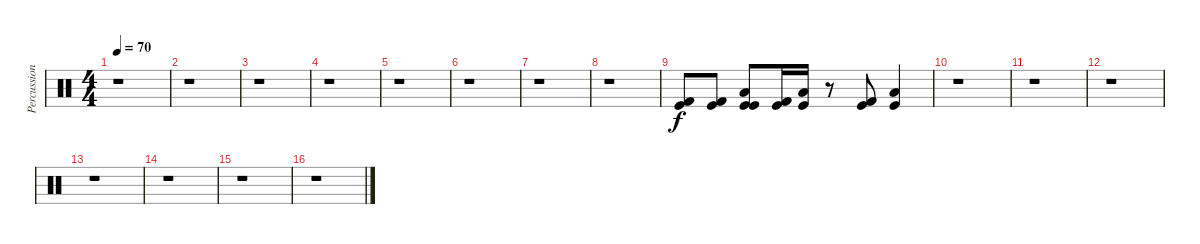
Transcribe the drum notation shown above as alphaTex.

\track ("Percussion" "Percussion") {instrument percussion}
\staff {score}
\articulation defaults
\ts (4 4)
\tempo 70
\clef neutral
\ks c
r.1{dy f} |
r.1 |
r.1 |
r.1 |
r.1 |
r.1 |
r.1 |
r.1 |
("Kick (hit)" "Kick (hit) 2").8 ("Kick (hit)" "Kick (hit) 2").8 ("Kick (hit)" "Low Floor Tom (hit)" "Kick (hit)").8 ("Kick (hit) 2" "Kick (hit)").16 ("Low Floor Tom (hit)" "Kick (hit)").16 r.8 ("Kick (hit)" "Kick (hit) 2").8 ("Low Floor Tom (hit)" "Kick (hit)").4 |
r.1 |
r.1 |
r.1 |
r.1 |
r.1 |
r.1 |
r.1
